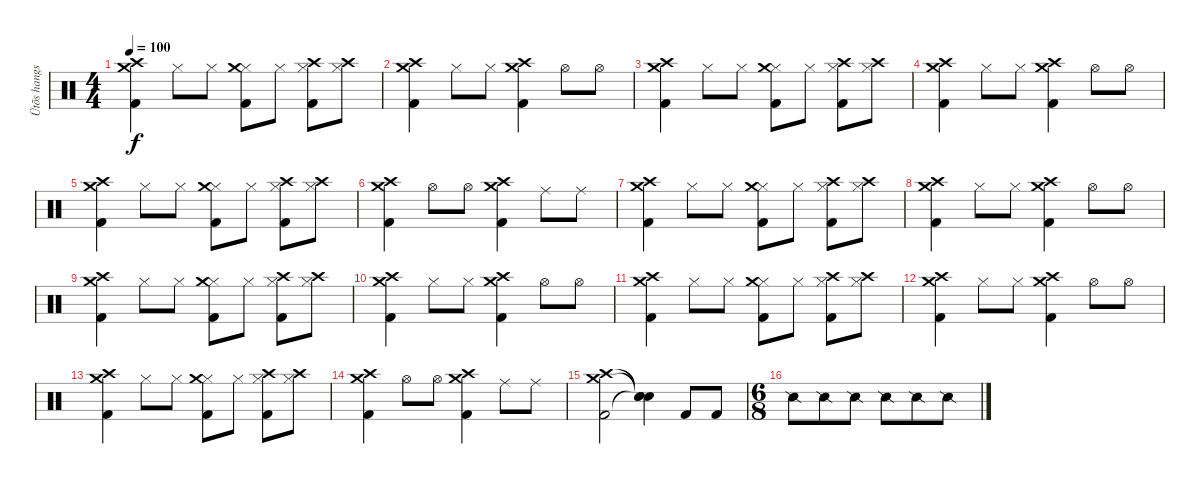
\track ("Ütõs hangszer" "Ütõs hangs") {instrument percussion}
\staff {score}
\articulation defaults
\ts (4 4)
\tempo 100
\clef neutral
\ks c
("Crash high (hit)" "Crash medium (hit)" "Kick (hit) 2").4{dy f} "Hi-Hat (closed)".8 "Hi-Hat (closed)".8 ("Hi-Hat (closed)" "Crash medium (hit)" "Kick (hit) 2").8 "Hi-Hat (closed)".8 ("Hi-Hat (closed)" "Crash high (hit)" "Kick (hit) 2").8 ("Hi-Hat (closed)" "Crash high (hit)").8 |
("Crash high (hit)" "Crash medium (hit)" "Kick (hit) 2").4 "Hi-Hat (closed)".8 "Hi-Hat (closed)".8 ("Crash high (hit)" "Crash medium (hit)" "Kick (hit) 2").4 "Hi-Hat (open)".8 "Hi-Hat (open)".8 |
("Crash high (hit)" "Crash medium (hit)" "Kick (hit) 2").4 "Hi-Hat (closed)".8 "Hi-Hat (closed)".8 ("Hi-Hat (closed)" "Crash medium (hit)" "Kick (hit) 2").8 "Hi-Hat (closed)".8 ("Hi-Hat (closed)" "Crash high (hit)" "Kick (hit) 2").8 ("Hi-Hat (closed)" "Crash high (hit)").8 |
("Crash high (hit)" "Crash medium (hit)" "Kick (hit) 2").4 "Hi-Hat (closed)".8 "Hi-Hat (closed)".8 ("Crash high (hit)" "Crash medium (hit)" "Kick (hit) 2").4 "Hi-Hat (open)".8 "Hi-Hat (open)".8 |
("Crash high (hit)" "Crash medium (hit)" "Kick (hit) 2").4 "Hi-Hat (closed)".8 "Hi-Hat (closed)".8 ("Hi-Hat (closed)" "Crash medium (hit)" "Kick (hit) 2").8 "Hi-Hat (closed)".8 ("Hi-Hat (closed)" "Crash high (hit)" "Kick (hit) 2").8 ("Hi-Hat (closed)" "Crash high (hit)").8 |
("Crash high (hit)" "Crash medium (hit)" "Kick (hit) 2").4 "Hi-Hat (open)".8 "Hi-Hat (open)".8 ("Crash high (hit)" "Crash medium (hit)" "Kick (hit) 2").4 "Ride (middle)".8 "Ride (middle)".8 |
("Crash high (hit)" "Crash medium (hit)" "Kick (hit) 2").4 "Hi-Hat (closed)".8 "Hi-Hat (closed)".8 ("Hi-Hat (closed)" "Crash medium (hit)" "Kick (hit) 2").8 "Hi-Hat (closed)".8 ("Hi-Hat (closed)" "Crash high (hit)" "Kick (hit) 2").8 ("Hi-Hat (closed)" "Crash high (hit)").8 |
("Crash high (hit)" "Crash medium (hit)" "Kick (hit) 2").4 "Hi-Hat (closed)".8 "Hi-Hat (closed)".8 ("Crash high (hit)" "Crash medium (hit)" "Kick (hit) 2").4 "Hi-Hat (open)".8 "Hi-Hat (open)".8 |
("Crash high (hit)" "Crash medium (hit)" "Kick (hit) 2").4 "Hi-Hat (closed)".8 "Hi-Hat (closed)".8 ("Hi-Hat (closed)" "Crash medium (hit)" "Kick (hit) 2").8 "Hi-Hat (closed)".8 ("Hi-Hat (closed)" "Crash high (hit)" "Kick (hit) 2").8 ("Hi-Hat (closed)" "Crash high (hit)").8 |
("Crash high (hit)" "Crash medium (hit)" "Kick (hit) 2").4 "Hi-Hat (closed)".8 "Hi-Hat (closed)".8 ("Crash high (hit)" "Crash medium (hit)" "Kick (hit) 2").4 "Hi-Hat (open)".8 "Hi-Hat (open)".8 |
("Crash high (hit)" "Crash medium (hit)" "Kick (hit) 2").4 "Hi-Hat (closed)".8 "Hi-Hat (closed)".8 ("Hi-Hat (closed)" "Crash medium (hit)" "Kick (hit) 2").8 "Hi-Hat (closed)".8 ("Hi-Hat (closed)" "Crash high (hit)" "Kick (hit) 2").8 ("Hi-Hat (closed)" "Crash high (hit)").8 |
("Crash high (hit)" "Crash medium (hit)" "Kick (hit) 2").4 "Hi-Hat (closed)".8 "Hi-Hat (closed)".8 ("Crash high (hit)" "Crash medium (hit)" "Kick (hit) 2").4 "Hi-Hat (open)".8 "Hi-Hat (open)".8 |
("Crash high (hit)" "Crash medium (hit)" "Kick (hit) 2").4 "Hi-Hat (closed)".8 "Hi-Hat (closed)".8 ("Hi-Hat (closed)" "Crash medium (hit)" "Kick (hit) 2").8 "Hi-Hat (closed)".8 ("Hi-Hat (closed)" "Crash high (hit)" "Kick (hit) 2").8 ("Hi-Hat (closed)" "Crash high (hit)").8 |
("Crash high (hit)" "Crash medium (hit)" "Kick (hit) 2").4 "Hi-Hat (open)".8 "Hi-Hat (open)".8 ("Crash high (hit)" "Crash medium (hit)" "Kick (hit) 2").4 "Ride (middle)".8 "Ride (middle)".8 |
("Crash high (hit)" "Crash medium (hit)" "Kick (hit) 2").2 ("Snare (hit)"{t} "Snare (hit)"{t} "Snare (hit)"{t}).4 "Kick (hit) 2".8 "Kick (hit) 2".8 |
\ts (6 8)
"Snare (side stick) 2".8 "Snare (side stick) 2".8 "Snare (side stick) 2".8 "Snare (side stick) 2".8 "Snare (side stick) 2".8 "Snare (side stick) 2".8
